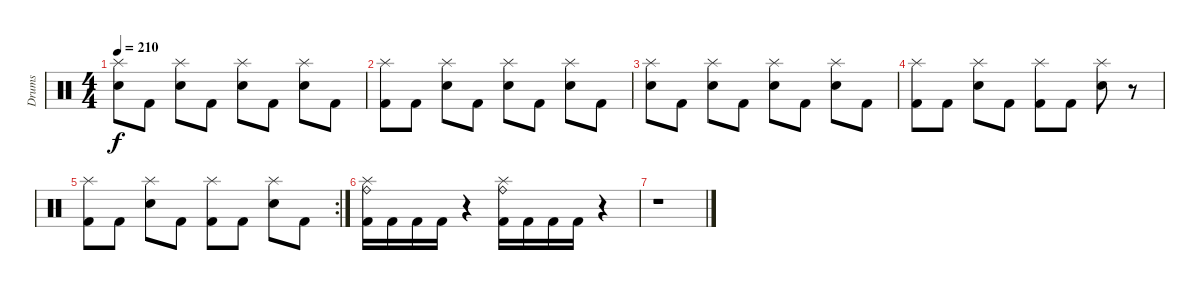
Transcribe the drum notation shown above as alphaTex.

\track ("Drums" "Drums") {instrument percussion}
\staff {score}
\articulation defaults
\ts (4 4)
\tempo 210
\clef neutral
\ks c
("Splash (hit)" "Snare (hit) 2").8{dy f} "Kick (hit) 2".8 ("Splash (hit)" "Snare (hit) 2").8 "Kick (hit) 2".8 ("Splash (hit)" "Snare (hit) 2").8 "Kick (hit) 2".8 ("Splash (hit)" "Snare (hit) 2").8 "Kick (hit) 2".8 |
("Splash (hit)" "Kick (hit) 2").8 "Kick (hit) 2".8 ("Splash (hit)" "Snare (hit) 2").8 "Kick (hit) 2".8 ("Splash (hit)" "Snare (hit) 2").8 "Kick (hit) 2".8 ("Splash (hit)" "Snare (hit) 2").8 "Kick (hit) 2".8 |
("Splash (hit)" "Snare (hit) 2").8 "Kick (hit) 2".8 ("Splash (hit)" "Snare (hit) 2").8 "Kick (hit) 2".8 ("Splash (hit)" "Snare (hit) 2").8 "Kick (hit) 2".8 ("Splash (hit)" "Snare (hit) 2").8 "Kick (hit) 2".8 |
("Splash (hit)" "Kick (hit) 2").8 "Kick (hit) 2".8 ("Splash (hit)" "Snare (hit) 2").8 "Kick (hit) 2".8 ("Splash (hit)" "Kick (hit) 2").8 "Kick (hit) 2".8 ("Splash (hit)" "Snare (hit) 2").8 r.8 |
\rc 2
("Splash (hit)" "Kick (hit) 2").8 "Kick (hit) 2".8 ("Splash (hit)" "Snare (hit) 2").8 "Kick (hit) 2".8 ("Splash (hit)" "Kick (hit) 2").8 "Kick (hit) 2".8 ("Splash (hit)" "Snare (hit) 2").8 "Kick (hit) 2".8 |
("Splash (hit)" "Ride (bell)" "Kick (hit) 2").16 "Kick (hit) 2".16 "Kick (hit) 2".16 "Kick (hit) 2".16 r.4 ("Splash (hit)" "Ride (bell)" "Kick (hit) 2").16 "Kick (hit) 2".16 "Kick (hit) 2".16 "Kick (hit) 2".16 r.4 |
r.1
